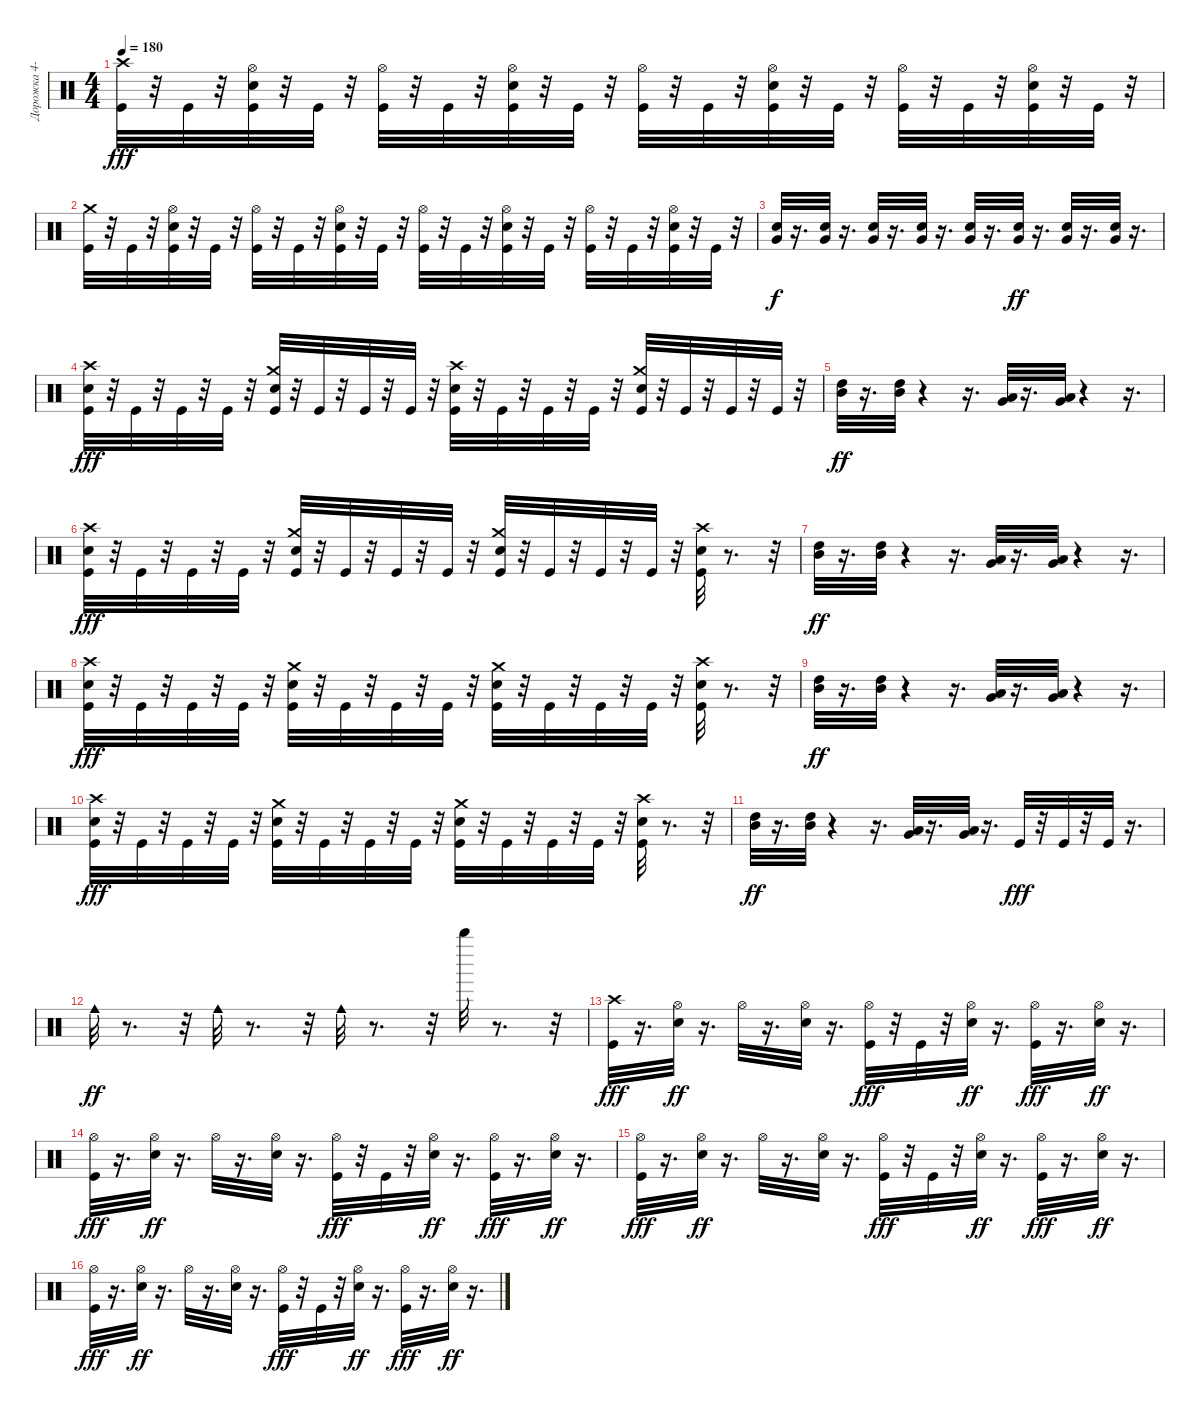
\track ("Дорожка 4-10-11" "Дорожка 4-") {instrument percussion}
\staff {score}
\articulation defaults
\ts (4 4)
\tempo 180
\clef neutral
\ks c
("Crash high (hit)" "Kick (hit)").32{dy fff} r.32 "Kick (hit)".32 r.32 ("Hi-Hat (open)" "Snare (hit) 2" "Kick (hit)").32 r.32 "Kick (hit)".32 r.32 ("Hi-Hat (open)" "Kick (hit)").32 r.32 "Kick (hit)".32 r.32 ("Snare (hit) 2" "Hi-Hat (open)" "Kick (hit)").32 r.32 "Kick (hit)".32 r.32 ("Hi-Hat (open)" "Kick (hit)").32 r.32 "Kick (hit)".32 r.32 ("Hi-Hat (open)" "Snare (hit) 2" "Kick (hit)").32 r.32 "Kick (hit)".32 r.32 ("Hi-Hat (open)" "Kick (hit)").32 r.32 "Kick (hit)".32 r.32 ("Hi-Hat (open)" "Snare (hit) 2" "Kick (hit)").32 r.32 "Kick (hit)".32 r.32 |
("Crash medium (hit)" "Kick (hit)").32 r.32 "Kick (hit)".32 r.32 ("Hi-Hat (open)" "Snare (hit) 2" "Kick (hit)").32 r.32 "Kick (hit)".32 r.32 ("Hi-Hat (open)" "Kick (hit)").32 r.32 "Kick (hit)".32 r.32 ("Snare (hit) 2" "Hi-Hat (open)" "Kick (hit)").32 r.32 "Kick (hit)".32 r.32 ("Hi-Hat (open)" "Kick (hit)").32 r.32 "Kick (hit)".32 r.32 ("Hi-Hat (open)" "Snare (hit) 2" "Kick (hit)").32 r.32 "Kick (hit)".32 r.32 ("Hi-Hat (open)" "Kick (hit)").32 r.32 "Kick (hit)".32 r.32 ("Hi-Hat (open)" "Snare (hit) 2" "Kick (hit)").32 r.32 "Kick (hit)".32 r.32 |
("Very Low Tom (hit)" "Snare (hit) 2").32{dy f} r.16{d} ("Very Low Tom (hit)" "Snare (hit) 2").32 r.16{d} ("Very Low Tom (hit)" "Snare (hit) 2").32 r.16{d} ("Very Low Tom (hit)" "Snare (hit) 2").32 r.16{d} ("Very Low Tom (hit)" "Snare (hit) 2").32 r.16{d} ("Very Low Tom (hit)" "Snare (hit) 2").32{dy ff} r.16{d} ("Very Low Tom (hit)" "Snare (hit) 2").32 r.16{d} ("Very Low Tom (hit)" "Snare (hit) 2").32 r.16{d} |
("Electric Snare (hit)" "Crash high (hit)" "Kick (hit)").32{dy fff} r.32 "Kick (hit)".32 r.32 "Kick (hit)".32 r.32 "Kick (hit)".32 r.32 ("Electric Snare (hit)" "Crash medium (hit)" "Kick (hit)").32 r.32 "Kick (hit)".32 r.32 "Kick (hit)".32 r.32 "Kick (hit)".32 r.32 ("Electric Snare (hit)" "Crash high (hit)" "Kick (hit)").32 r.32 "Kick (hit)".32 r.32 "Kick (hit)".32 r.32 "Kick (hit)".32 r.32 ("Electric Snare (hit)" "Crash medium (hit)" "Kick (hit)").32 r.32 "Kick (hit)".32 r.32 "Kick (hit)".32 r.32 "Kick (hit)".32 r.32 |
("Mid Tom (hit)" "High Tom (hit)").32{dy ff} r.16{d} ("Mid Tom (hit)" "High Tom (hit)").32 r.4 r.16{d} ("Very Low Tom (hit)" "Low Tom (hit)").32 r.16{d} ("Very Low Tom (hit)" "Low Tom (hit)").32 r.4 r.16{d} |
("Electric Snare (hit)" "Crash high (hit)" "Kick (hit)").32{dy fff} r.32 "Kick (hit)".32 r.32 "Kick (hit)".32 r.32 "Kick (hit)".32 r.32 ("Electric Snare (hit)" "Crash medium (hit)" "Kick (hit)").32 r.32 "Kick (hit)".32 r.32 "Kick (hit)".32 r.32 "Kick (hit)".32 r.32 ("Electric Snare (hit)" "Crash medium (hit)" "Kick (hit)").32 r.32 "Kick (hit)".32 r.32 "Kick (hit)".32 r.32 "Kick (hit)".32 r.32 ("Electric Snare (hit)" "Crash high (hit)" "Kick (hit)").32 r.8{d} r.32 |
("Mid Tom (hit)" "High Tom (hit)").32{dy ff} r.16{d} ("Mid Tom (hit)" "High Tom (hit)").32 r.4 r.16{d} ("Very Low Tom (hit)" "Low Tom (hit)").32 r.16{d} ("Very Low Tom (hit)" "Low Tom (hit)").32 r.4 r.16{d} |
("Snare (hit) 2" "Crash high (hit)" "Kick (hit)").32{dy fff} r.32 "Kick (hit)".32 r.32 "Kick (hit)".32 r.32 "Kick (hit)".32 r.32 ("Crash medium (hit)" "Snare (hit) 2" "Kick (hit)").32 r.32 "Kick (hit)".32 r.32 "Kick (hit)".32 r.32 "Kick (hit)".32 r.32 ("Snare (hit) 2" "Crash medium (hit)" "Kick (hit)").32 r.32 "Kick (hit)".32 r.32 "Kick (hit)".32 r.32 "Kick (hit)".32 r.32 ("Snare (hit) 2" "Crash high (hit)" "Kick (hit)").32 r.8{d} r.32 |
("Mid Tom (hit)" "High Tom (hit)").32{dy ff} r.16{d} ("High Tom (hit)" "Mid Tom (hit)").32 r.4 r.16{d} ("Very Low Tom (hit)" "Low Tom (hit)").32 r.16{d} ("Low Tom (hit)" "Very Low Tom (hit)").32 r.4 r.16{d} |
("Snare (hit) 2" "Crash high (hit)" "Kick (hit)").32{dy fff} r.32 "Kick (hit)".32 r.32 "Kick (hit)".32 r.32 "Kick (hit)".32 r.32 ("Snare (hit) 2" "Crash medium (hit)" "Kick (hit)").32 r.32 "Kick (hit)".32 r.32 "Kick (hit)".32 r.32 "Kick (hit)".32 r.32 ("Snare (hit) 2" "Crash medium (hit)" "Kick (hit)").32 r.32 "Kick (hit)".32 r.32 "Kick (hit)".32 r.32 "Kick (hit)".32 r.32 ("Snare (hit) 2" "Crash high (hit)" "Kick (hit)").32 r.8{d} r.32 |
("High Tom (hit)" "Mid Tom (hit)").32{dy ff} r.16{d} ("High Tom (hit)" "Mid Tom (hit)").32 r.4 r.16{d} ("Very Low Tom (hit)" "Low Tom (hit)").32 r.16{d} ("Very Low Tom (hit)" "Low Tom (hit)").32 r.16{d} "Kick (hit)".32{dy fff} r.32 "Kick (hit)".32 r.32 "Kick (hit)".32 r.16{d} |
"Cowbell medium (hit)".32{dy ff} r.8{d} r.32 "Cowbell medium (hit)".32 r.8{d} r.32 "Cowbell medium (hit)".32 r.8{d} r.32 "Whistle high (hit)".32 r.8{d} r.32 |
("Crash high (hit)" "Kick (hit)").32{dy fff} r.16{d} ("Hi-Hat (open)" "Snare (hit) 2").32{dy ff} r.16{d} "Hi-Hat (open)".32 r.16{d} ("Snare (hit) 2" "Hi-Hat (open)").32 r.16{d} ("Hi-Hat (open)" "Kick (hit)").32{dy fff} r.32 "Kick (hit)".32 r.32 ("Hi-Hat (open)" "Snare (hit) 2").32{dy ff} r.16{d} ("Hi-Hat (open)" "Kick (hit)").32{dy fff} r.16{d} ("Hi-Hat (open)" "Snare (hit) 2").32{dy ff} r.16{d} |
("Hi-Hat (open)" "Kick (hit)").32{dy fff} r.16{d} ("Hi-Hat (open)" "Snare (hit) 2").32{dy ff} r.16{d} "Hi-Hat (open)".32 r.16{d} ("Snare (hit) 2" "Hi-Hat (open)").32 r.16{d} ("Hi-Hat (open)" "Kick (hit)").32{dy fff} r.32 "Kick (hit)".32 r.32 ("Hi-Hat (open)" "Snare (hit) 2").32{dy ff} r.16{d} ("Hi-Hat (open)" "Kick (hit)").32{dy fff} r.16{d} ("Hi-Hat (open)" "Snare (hit) 2").32{dy ff} r.16{d} |
("Hi-Hat (open)" "Kick (hit)").32{dy fff} r.16{d} ("Hi-Hat (open)" "Snare (hit) 2").32{dy ff} r.16{d} "Hi-Hat (open)".32 r.16{d} ("Snare (hit) 2" "Hi-Hat (open)").32 r.16{d} ("Hi-Hat (open)" "Kick (hit)").32{dy fff} r.32 "Kick (hit)".32 r.32 ("Hi-Hat (open)" "Snare (hit) 2").32{dy ff} r.16{d} ("Hi-Hat (open)" "Kick (hit)").32{dy fff} r.16{d} ("Hi-Hat (open)" "Snare (hit) 2").32{dy ff} r.16{d} |
("Hi-Hat (open)" "Kick (hit)").32{dy fff} r.16{d} ("Hi-Hat (open)" "Snare (hit) 2").32{dy ff} r.16{d} "Hi-Hat (open)".32 r.16{d} ("Snare (hit) 2" "Hi-Hat (open)").32 r.16{d} ("Hi-Hat (open)" "Kick (hit)").32{dy fff} r.32 "Kick (hit)".32 r.32 ("Hi-Hat (open)" "Snare (hit) 2").32{dy ff} r.16{d} ("Hi-Hat (open)" "Kick (hit)").32{dy fff} r.16{d} ("Hi-Hat (open)" "Snare (hit) 2").32{dy ff} r.16{d}
